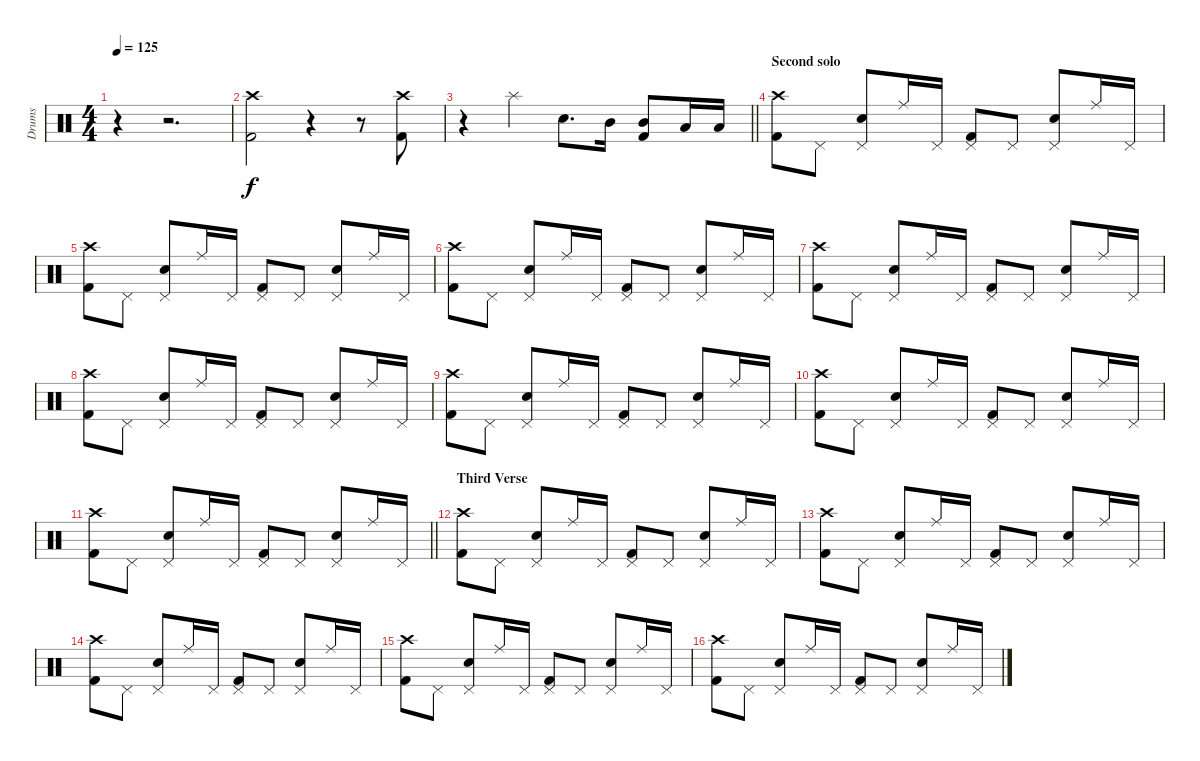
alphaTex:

\track ("Drums" "Drums") {instrument percussion}
\staff {score}
\articulation defaults
\ts (4 4)
\tempo 125
\clef neutral
\ks c
r.4{dy f} r.2{d} |
("Crash high (hit)" "Kick (hit) 2").2 r.4 r.8 ("Crash high (hit)" "Kick (hit) 2").8 |
\barLineRight lightlight
r.4 "Splash (hit)".4 "Snare (hit) 2".8{d} "Mid Tom (hit)".16 ("Kick (hit) 2" "Mid Tom (hit)").8 "Low Tom (hit)".16 "Low Tom (hit)".16 |
\section ("" "Second solo")
("Crash high (hit)" "Kick (hit) 2").8 "Pedal Hi-Hat (hit)".8 ("Pedal Hi-Hat (hit)" "Snare (hit) 2").8 "Ride (middle)".16 "Pedal Hi-Hat (hit)".16 ("Pedal Hi-Hat (hit)" "Kick (hit) 2").8 "Pedal Hi-Hat (hit)".8 ("Pedal Hi-Hat (hit)" "Snare (hit) 2").8 "Ride (middle)".16 "Pedal Hi-Hat (hit)".16 |
("Crash high (hit)" "Kick (hit) 2").8 "Pedal Hi-Hat (hit)".8 ("Pedal Hi-Hat (hit)" "Snare (hit) 2").8 "Ride (middle)".16 "Pedal Hi-Hat (hit)".16 ("Pedal Hi-Hat (hit)" "Kick (hit) 2").8 "Pedal Hi-Hat (hit)".8 ("Pedal Hi-Hat (hit)" "Snare (hit) 2").8 "Ride (middle)".16 "Pedal Hi-Hat (hit)".16 |
("Crash high (hit)" "Kick (hit) 2").8 "Pedal Hi-Hat (hit)".8 ("Pedal Hi-Hat (hit)" "Snare (hit) 2").8 "Ride (middle)".16 "Pedal Hi-Hat (hit)".16 ("Pedal Hi-Hat (hit)" "Kick (hit) 2").8 "Pedal Hi-Hat (hit)".8 ("Pedal Hi-Hat (hit)" "Snare (hit) 2").8 "Ride (middle)".16 "Pedal Hi-Hat (hit)".16 |
("Crash high (hit)" "Kick (hit) 2").8 "Pedal Hi-Hat (hit)".8 ("Pedal Hi-Hat (hit)" "Snare (hit) 2").8 "Ride (middle)".16 "Pedal Hi-Hat (hit)".16 ("Pedal Hi-Hat (hit)" "Kick (hit) 2").8 "Pedal Hi-Hat (hit)".8 ("Pedal Hi-Hat (hit)" "Snare (hit) 2").8 "Ride (middle)".16 "Pedal Hi-Hat (hit)".16 |
("Crash high (hit)" "Kick (hit) 2").8 "Pedal Hi-Hat (hit)".8 ("Pedal Hi-Hat (hit)" "Snare (hit) 2").8 "Ride (middle)".16 "Pedal Hi-Hat (hit)".16 ("Pedal Hi-Hat (hit)" "Kick (hit) 2").8 "Pedal Hi-Hat (hit)".8 ("Pedal Hi-Hat (hit)" "Snare (hit) 2").8 "Ride (middle)".16 "Pedal Hi-Hat (hit)".16 |
("Crash high (hit)" "Kick (hit) 2").8 "Pedal Hi-Hat (hit)".8 ("Pedal Hi-Hat (hit)" "Snare (hit) 2").8 "Ride (middle)".16 "Pedal Hi-Hat (hit)".16 ("Pedal Hi-Hat (hit)" "Kick (hit) 2").8 "Pedal Hi-Hat (hit)".8 ("Pedal Hi-Hat (hit)" "Snare (hit) 2").8 "Ride (middle)".16 "Pedal Hi-Hat (hit)".16 |
("Crash high (hit)" "Kick (hit) 2").8 "Pedal Hi-Hat (hit)".8 ("Pedal Hi-Hat (hit)" "Snare (hit) 2").8 "Ride (middle)".16 "Pedal Hi-Hat (hit)".16 ("Pedal Hi-Hat (hit)" "Kick (hit) 2").8 "Pedal Hi-Hat (hit)".8 ("Pedal Hi-Hat (hit)" "Snare (hit) 2").8 "Ride (middle)".16 "Pedal Hi-Hat (hit)".16 |
\barLineRight lightlight
("Crash high (hit)" "Kick (hit) 2").8 "Pedal Hi-Hat (hit)".8 ("Pedal Hi-Hat (hit)" "Snare (hit) 2").8 "Ride (middle)".16 "Pedal Hi-Hat (hit)".16 ("Pedal Hi-Hat (hit)" "Kick (hit) 2").8 "Pedal Hi-Hat (hit)".8 ("Pedal Hi-Hat (hit)" "Snare (hit) 2").8 "Ride (middle)".16 "Pedal Hi-Hat (hit)".16 |
\section ("" "Third Verse")
("Crash high (hit)" "Kick (hit) 2").8 "Pedal Hi-Hat (hit)".8 ("Pedal Hi-Hat (hit)" "Snare (hit) 2").8 "Ride (middle)".16 "Pedal Hi-Hat (hit)".16 ("Pedal Hi-Hat (hit)" "Kick (hit) 2").8 "Pedal Hi-Hat (hit)".8 ("Pedal Hi-Hat (hit)" "Snare (hit) 2").8 "Ride (middle)".16 "Pedal Hi-Hat (hit)".16 |
("Crash high (hit)" "Kick (hit) 2").8 "Pedal Hi-Hat (hit)".8 ("Pedal Hi-Hat (hit)" "Snare (hit) 2").8 "Ride (middle)".16 "Pedal Hi-Hat (hit)".16 ("Pedal Hi-Hat (hit)" "Kick (hit) 2").8 "Pedal Hi-Hat (hit)".8 ("Pedal Hi-Hat (hit)" "Snare (hit) 2").8 "Ride (middle)".16 "Pedal Hi-Hat (hit)".16 |
("Crash high (hit)" "Kick (hit) 2").8 "Pedal Hi-Hat (hit)".8 ("Pedal Hi-Hat (hit)" "Snare (hit) 2").8 "Ride (middle)".16 "Pedal Hi-Hat (hit)".16 ("Pedal Hi-Hat (hit)" "Kick (hit) 2").8 "Pedal Hi-Hat (hit)".8 ("Pedal Hi-Hat (hit)" "Snare (hit) 2").8 "Ride (middle)".16 "Pedal Hi-Hat (hit)".16 |
("Crash high (hit)" "Kick (hit) 2").8 "Pedal Hi-Hat (hit)".8 ("Pedal Hi-Hat (hit)" "Snare (hit) 2").8 "Ride (middle)".16 "Pedal Hi-Hat (hit)".16 ("Pedal Hi-Hat (hit)" "Kick (hit) 2").8 "Pedal Hi-Hat (hit)".8 ("Pedal Hi-Hat (hit)" "Snare (hit) 2").8 "Ride (middle)".16 "Pedal Hi-Hat (hit)".16 |
("Crash high (hit)" "Kick (hit) 2").8 "Pedal Hi-Hat (hit)".8 ("Pedal Hi-Hat (hit)" "Snare (hit) 2").8 "Ride (middle)".16 "Pedal Hi-Hat (hit)".16 ("Pedal Hi-Hat (hit)" "Kick (hit) 2").8 "Pedal Hi-Hat (hit)".8 ("Pedal Hi-Hat (hit)" "Snare (hit) 2").8 "Ride (middle)".16 "Pedal Hi-Hat (hit)".16
